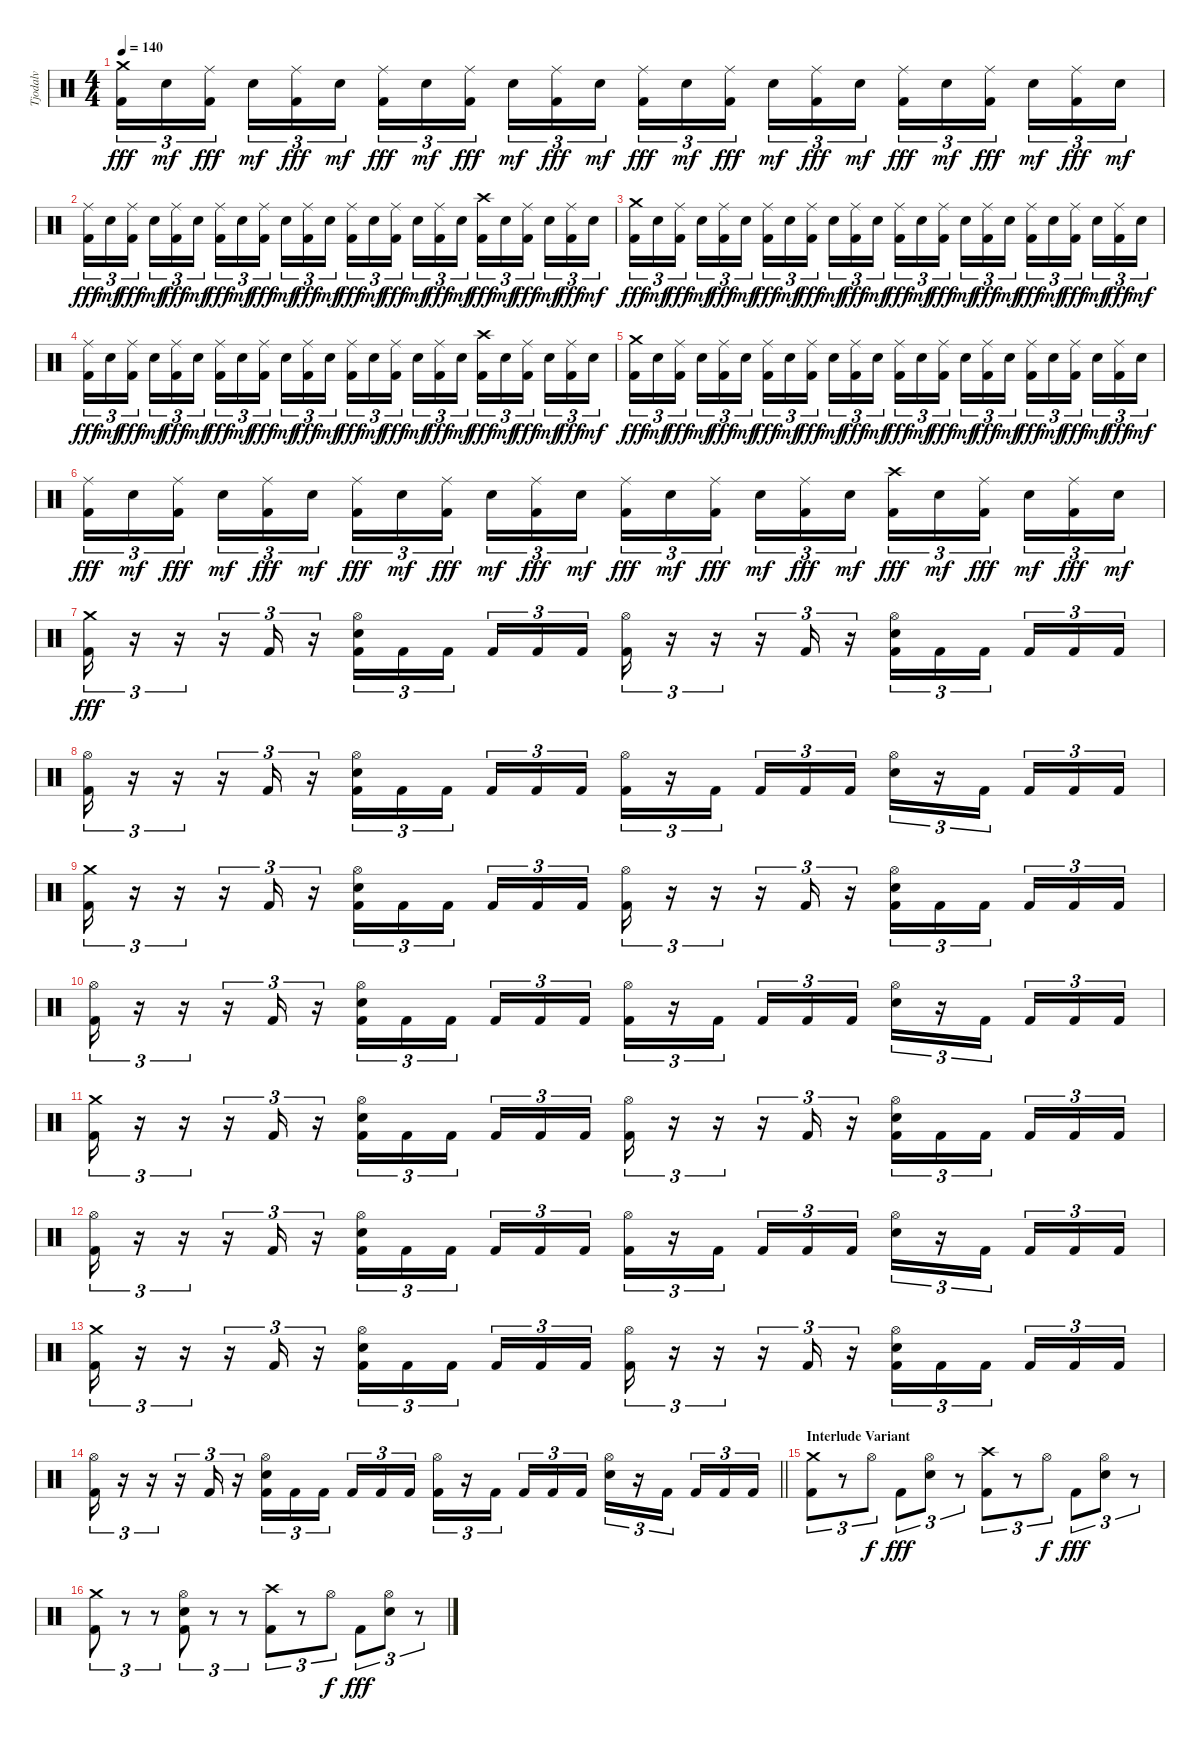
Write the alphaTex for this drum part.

\track ("Tjodalv" "Tjodalv") {instrument percussion}
\staff {score}
\articulation defaults
\ts (4 4)
\tempo 140
\clef neutral
\ks c
("Crash medium (hit)" "Kick (hit) 2").16{tu (3 2) dy fff} "Snare (hit) 2".16{tu (3 2) dy mf} ("Ride (middle)" "Kick (hit) 2").16{tu (3 2) dy fff beam splitsecondary} "Snare (hit) 2".16{tu (3 2) dy mf} ("Ride (middle)" "Kick (hit) 2").16{tu (3 2) dy fff} "Snare (hit) 2".16{tu (3 2) dy mf} ("Ride (middle)" "Kick (hit) 2").16{tu (3 2) dy fff} "Snare (hit) 2".16{tu (3 2) dy mf} ("Ride (middle)" "Kick (hit) 2").16{tu (3 2) dy fff beam splitsecondary} "Snare (hit) 2".16{tu (3 2) dy mf} ("Ride (middle)" "Kick (hit) 2").16{tu (3 2) dy fff} "Snare (hit) 2".16{tu (3 2) dy mf} ("Ride (middle)" "Kick (hit) 2").16{tu (3 2) dy fff} "Snare (hit) 2".16{tu (3 2) dy mf} ("Ride (middle)" "Kick (hit) 2").16{tu (3 2) dy fff beam splitsecondary} "Snare (hit) 2".16{tu (3 2) dy mf} ("Ride (middle)" "Kick (hit) 2").16{tu (3 2) dy fff} "Snare (hit) 2".16{tu (3 2) dy mf} ("Ride (middle)" "Kick (hit) 2").16{tu (3 2) dy fff} "Snare (hit) 2".16{tu (3 2) dy mf} ("Ride (middle)" "Kick (hit) 2").16{tu (3 2) dy fff beam splitsecondary} "Snare (hit) 2".16{tu (3 2) dy mf} ("Ride (middle)" "Kick (hit) 2").16{tu (3 2) dy fff} "Snare (hit) 2".16{tu (3 2) dy mf} |
("Ride (middle)" "Kick (hit) 2").16{tu (3 2) dy fff} "Snare (hit) 2".16{tu (3 2) dy mf} ("Ride (middle)" "Kick (hit) 2").16{tu (3 2) dy fff beam splitsecondary} "Snare (hit) 2".16{tu (3 2) dy mf} ("Ride (middle)" "Kick (hit) 2").16{tu (3 2) dy fff} "Snare (hit) 2".16{tu (3 2) dy mf} ("Ride (middle)" "Kick (hit) 2").16{tu (3 2) dy fff} "Snare (hit) 2".16{tu (3 2) dy mf} ("Ride (middle)" "Kick (hit) 2").16{tu (3 2) dy fff beam splitsecondary} "Snare (hit) 2".16{tu (3 2) dy mf} ("Ride (middle)" "Kick (hit) 2").16{tu (3 2) dy fff} "Snare (hit) 2".16{tu (3 2) dy mf} ("Ride (middle)" "Kick (hit) 2").16{tu (3 2) dy fff} "Snare (hit) 2".16{tu (3 2) dy mf} ("Ride (middle)" "Kick (hit) 2").16{tu (3 2) dy fff beam splitsecondary} "Snare (hit) 2".16{tu (3 2) dy mf} ("Ride (middle)" "Kick (hit) 2").16{tu (3 2) dy fff} "Snare (hit) 2".16{tu (3 2) dy mf} ("Crash high (hit)" "Kick (hit) 2").16{tu (3 2) dy fff} "Snare (hit) 2".16{tu (3 2) dy mf} ("Ride (middle)" "Kick (hit) 2").16{tu (3 2) dy fff beam splitsecondary} "Snare (hit) 2".16{tu (3 2) dy mf} ("Ride (middle)" "Kick (hit) 2").16{tu (3 2) dy fff} "Snare (hit) 2".16{tu (3 2) dy mf} |
("Crash medium (hit)" "Kick (hit) 2").16{tu (3 2) dy fff} "Snare (hit) 2".16{tu (3 2) dy mf} ("Ride (middle)" "Kick (hit) 2").16{tu (3 2) dy fff beam splitsecondary} "Snare (hit) 2".16{tu (3 2) dy mf} ("Ride (middle)" "Kick (hit) 2").16{tu (3 2) dy fff} "Snare (hit) 2".16{tu (3 2) dy mf} ("Ride (middle)" "Kick (hit) 2").16{tu (3 2) dy fff} "Snare (hit) 2".16{tu (3 2) dy mf} ("Ride (middle)" "Kick (hit) 2").16{tu (3 2) dy fff beam splitsecondary} "Snare (hit) 2".16{tu (3 2) dy mf} ("Ride (middle)" "Kick (hit) 2").16{tu (3 2) dy fff} "Snare (hit) 2".16{tu (3 2) dy mf} ("Ride (middle)" "Kick (hit) 2").16{tu (3 2) dy fff} "Snare (hit) 2".16{tu (3 2) dy mf} ("Ride (middle)" "Kick (hit) 2").16{tu (3 2) dy fff beam splitsecondary} "Snare (hit) 2".16{tu (3 2) dy mf} ("Ride (middle)" "Kick (hit) 2").16{tu (3 2) dy fff} "Snare (hit) 2".16{tu (3 2) dy mf} ("Ride (middle)" "Kick (hit) 2").16{tu (3 2) dy fff} "Snare (hit) 2".16{tu (3 2) dy mf} ("Ride (middle)" "Kick (hit) 2").16{tu (3 2) dy fff beam splitsecondary} "Snare (hit) 2".16{tu (3 2) dy mf} ("Ride (middle)" "Kick (hit) 2").16{tu (3 2) dy fff} "Snare (hit) 2".16{tu (3 2) dy mf} |
("Ride (middle)" "Kick (hit) 2").16{tu (3 2) dy fff} "Snare (hit) 2".16{tu (3 2) dy mf} ("Ride (middle)" "Kick (hit) 2").16{tu (3 2) dy fff beam splitsecondary} "Snare (hit) 2".16{tu (3 2) dy mf} ("Ride (middle)" "Kick (hit) 2").16{tu (3 2) dy fff} "Snare (hit) 2".16{tu (3 2) dy mf} ("Ride (middle)" "Kick (hit) 2").16{tu (3 2) dy fff} "Snare (hit) 2".16{tu (3 2) dy mf} ("Ride (middle)" "Kick (hit) 2").16{tu (3 2) dy fff beam splitsecondary} "Snare (hit) 2".16{tu (3 2) dy mf} ("Ride (middle)" "Kick (hit) 2").16{tu (3 2) dy fff} "Snare (hit) 2".16{tu (3 2) dy mf} ("Ride (middle)" "Kick (hit) 2").16{tu (3 2) dy fff} "Snare (hit) 2".16{tu (3 2) dy mf} ("Ride (middle)" "Kick (hit) 2").16{tu (3 2) dy fff beam splitsecondary} "Snare (hit) 2".16{tu (3 2) dy mf} ("Ride (middle)" "Kick (hit) 2").16{tu (3 2) dy fff} "Snare (hit) 2".16{tu (3 2) dy mf} ("Crash high (hit)" "Kick (hit) 2").16{tu (3 2) dy fff} "Snare (hit) 2".16{tu (3 2) dy mf} ("Ride (middle)" "Kick (hit) 2").16{tu (3 2) dy fff beam splitsecondary} "Snare (hit) 2".16{tu (3 2) dy mf} ("Ride (middle)" "Kick (hit) 2").16{tu (3 2) dy fff} "Snare (hit) 2".16{tu (3 2) dy mf} |
("Crash medium (hit)" "Kick (hit) 2").16{tu (3 2) dy fff} "Snare (hit) 2".16{tu (3 2) dy mf} ("Ride (middle)" "Kick (hit) 2").16{tu (3 2) dy fff beam splitsecondary} "Snare (hit) 2".16{tu (3 2) dy mf} ("Ride (middle)" "Kick (hit) 2").16{tu (3 2) dy fff} "Snare (hit) 2".16{tu (3 2) dy mf} ("Ride (middle)" "Kick (hit) 2").16{tu (3 2) dy fff} "Snare (hit) 2".16{tu (3 2) dy mf} ("Ride (middle)" "Kick (hit) 2").16{tu (3 2) dy fff beam splitsecondary} "Snare (hit) 2".16{tu (3 2) dy mf} ("Ride (middle)" "Kick (hit) 2").16{tu (3 2) dy fff} "Snare (hit) 2".16{tu (3 2) dy mf} ("Ride (middle)" "Kick (hit) 2").16{tu (3 2) dy fff} "Snare (hit) 2".16{tu (3 2) dy mf} ("Ride (middle)" "Kick (hit) 2").16{tu (3 2) dy fff beam splitsecondary} "Snare (hit) 2".16{tu (3 2) dy mf} ("Ride (middle)" "Kick (hit) 2").16{tu (3 2) dy fff} "Snare (hit) 2".16{tu (3 2) dy mf} ("Ride (middle)" "Kick (hit) 2").16{tu (3 2) dy fff} "Snare (hit) 2".16{tu (3 2) dy mf} ("Ride (middle)" "Kick (hit) 2").16{tu (3 2) dy fff beam splitsecondary} "Snare (hit) 2".16{tu (3 2) dy mf} ("Ride (middle)" "Kick (hit) 2").16{tu (3 2) dy fff} "Snare (hit) 2".16{tu (3 2) dy mf} |
("Ride (middle)" "Kick (hit) 2").16{tu (3 2) dy fff} "Snare (hit) 2".16{tu (3 2) dy mf} ("Ride (middle)" "Kick (hit) 2").16{tu (3 2) dy fff beam splitsecondary} "Snare (hit) 2".16{tu (3 2) dy mf} ("Ride (middle)" "Kick (hit) 2").16{tu (3 2) dy fff} "Snare (hit) 2".16{tu (3 2) dy mf} ("Ride (middle)" "Kick (hit) 2").16{tu (3 2) dy fff} "Snare (hit) 2".16{tu (3 2) dy mf} ("Ride (middle)" "Kick (hit) 2").16{tu (3 2) dy fff beam splitsecondary} "Snare (hit) 2".16{tu (3 2) dy mf} ("Ride (middle)" "Kick (hit) 2").16{tu (3 2) dy fff} "Snare (hit) 2".16{tu (3 2) dy mf} ("Ride (middle)" "Kick (hit) 2").16{tu (3 2) dy fff} "Snare (hit) 2".16{tu (3 2) dy mf} ("Ride (middle)" "Kick (hit) 2").16{tu (3 2) dy fff beam splitsecondary} "Snare (hit) 2".16{tu (3 2) dy mf} ("Ride (middle)" "Kick (hit) 2").16{tu (3 2) dy fff} "Snare (hit) 2".16{tu (3 2) dy mf} ("Crash high (hit)" "Kick (hit) 2").16{tu (3 2) dy fff} "Snare (hit) 2".16{tu (3 2) dy mf} ("Ride (middle)" "Kick (hit) 2").16{tu (3 2) dy fff beam splitsecondary} "Snare (hit) 2".16{tu (3 2) dy mf} ("Ride (middle)" "Kick (hit) 2").16{tu (3 2) dy fff} "Snare (hit) 2".16{tu (3 2) dy mf} |
("Crash medium (hit)" "Kick (hit) 2").16{tu (3 2) dy fff} r.16{tu (3 2)} r.16{tu (3 2)} r.16{tu (3 2)} "Kick (hit) 2".16{tu (3 2)} r.16{tu (3 2)} ("Hi-Hat (open)" "Snare (hit) 2" "Kick (hit) 2").16{tu (3 2)} "Kick (hit) 2".16{tu (3 2)} "Kick (hit) 2".16{tu (3 2) beam splitsecondary} "Kick (hit) 2".16{tu (3 2)} "Kick (hit) 2".16{tu (3 2)} "Kick (hit) 2".16{tu (3 2)} ("Hi-Hat (open)" "Kick (hit) 2").16{tu (3 2)} r.16{tu (3 2)} r.16{tu (3 2)} r.16{tu (3 2)} "Kick (hit) 2".16{tu (3 2)} r.16{tu (3 2)} ("Hi-Hat (open)" "Snare (hit) 2" "Kick (hit) 2").16{tu (3 2)} "Kick (hit) 2".16{tu (3 2)} "Kick (hit) 2".16{tu (3 2) beam splitsecondary} "Kick (hit) 2".16{tu (3 2)} "Kick (hit) 2".16{tu (3 2)} "Kick (hit) 2".16{tu (3 2)} |
("Hi-Hat (open)" "Kick (hit) 2").16{tu (3 2)} r.16{tu (3 2)} r.16{tu (3 2)} r.16{tu (3 2)} "Kick (hit) 2".16{tu (3 2)} r.16{tu (3 2)} ("Hi-Hat (open)" "Snare (hit) 2" "Kick (hit) 2").16{tu (3 2)} "Kick (hit) 2".16{tu (3 2)} "Kick (hit) 2".16{tu (3 2) beam splitsecondary} "Kick (hit) 2".16{tu (3 2)} "Kick (hit) 2".16{tu (3 2)} "Kick (hit) 2".16{tu (3 2)} ("Hi-Hat (open)" "Kick (hit) 2").16{tu (3 2)} r.16{tu (3 2)} "Kick (hit) 2".16{tu (3 2) beam splitsecondary} "Kick (hit) 2".16{tu (3 2)} "Kick (hit) 2".16{tu (3 2)} "Kick (hit) 2".16{tu (3 2)} ("Hi-Hat (open)" "Snare (hit) 2").16{tu (3 2)} r.16{tu (3 2)} "Kick (hit) 2".16{tu (3 2) beam splitsecondary} "Kick (hit) 2".16{tu (3 2)} "Kick (hit) 2".16{tu (3 2)} "Kick (hit) 2".16{tu (3 2)} |
("Crash medium (hit)" "Kick (hit) 2").16{tu (3 2)} r.16{tu (3 2)} r.16{tu (3 2)} r.16{tu (3 2)} "Kick (hit) 2".16{tu (3 2)} r.16{tu (3 2)} ("Hi-Hat (open)" "Snare (hit) 2" "Kick (hit) 2").16{tu (3 2)} "Kick (hit) 2".16{tu (3 2)} "Kick (hit) 2".16{tu (3 2) beam splitsecondary} "Kick (hit) 2".16{tu (3 2)} "Kick (hit) 2".16{tu (3 2)} "Kick (hit) 2".16{tu (3 2)} ("Hi-Hat (open)" "Kick (hit) 2").16{tu (3 2)} r.16{tu (3 2)} r.16{tu (3 2)} r.16{tu (3 2)} "Kick (hit) 2".16{tu (3 2)} r.16{tu (3 2)} ("Hi-Hat (open)" "Snare (hit) 2" "Kick (hit) 2").16{tu (3 2)} "Kick (hit) 2".16{tu (3 2)} "Kick (hit) 2".16{tu (3 2) beam splitsecondary} "Kick (hit) 2".16{tu (3 2)} "Kick (hit) 2".16{tu (3 2)} "Kick (hit) 2".16{tu (3 2)} |
("Hi-Hat (open)" "Kick (hit) 2").16{tu (3 2)} r.16{tu (3 2)} r.16{tu (3 2)} r.16{tu (3 2)} "Kick (hit) 2".16{tu (3 2)} r.16{tu (3 2)} ("Hi-Hat (open)" "Snare (hit) 2" "Kick (hit) 2").16{tu (3 2)} "Kick (hit) 2".16{tu (3 2)} "Kick (hit) 2".16{tu (3 2) beam splitsecondary} "Kick (hit) 2".16{tu (3 2)} "Kick (hit) 2".16{tu (3 2)} "Kick (hit) 2".16{tu (3 2)} ("Hi-Hat (open)" "Kick (hit) 2").16{tu (3 2)} r.16{tu (3 2)} "Kick (hit) 2".16{tu (3 2) beam splitsecondary} "Kick (hit) 2".16{tu (3 2)} "Kick (hit) 2".16{tu (3 2)} "Kick (hit) 2".16{tu (3 2)} ("Hi-Hat (open)" "Snare (hit) 2").16{tu (3 2)} r.16{tu (3 2)} "Kick (hit) 2".16{tu (3 2) beam splitsecondary} "Kick (hit) 2".16{tu (3 2)} "Kick (hit) 2".16{tu (3 2)} "Kick (hit) 2".16{tu (3 2)} |
("Crash medium (hit)" "Kick (hit) 2").16{tu (3 2)} r.16{tu (3 2)} r.16{tu (3 2)} r.16{tu (3 2)} "Kick (hit) 2".16{tu (3 2)} r.16{tu (3 2)} ("Hi-Hat (open)" "Snare (hit) 2" "Kick (hit) 2").16{tu (3 2)} "Kick (hit) 2".16{tu (3 2)} "Kick (hit) 2".16{tu (3 2) beam splitsecondary} "Kick (hit) 2".16{tu (3 2)} "Kick (hit) 2".16{tu (3 2)} "Kick (hit) 2".16{tu (3 2)} ("Hi-Hat (open)" "Kick (hit) 2").16{tu (3 2)} r.16{tu (3 2)} r.16{tu (3 2)} r.16{tu (3 2)} "Kick (hit) 2".16{tu (3 2)} r.16{tu (3 2)} ("Hi-Hat (open)" "Snare (hit) 2" "Kick (hit) 2").16{tu (3 2)} "Kick (hit) 2".16{tu (3 2)} "Kick (hit) 2".16{tu (3 2) beam splitsecondary} "Kick (hit) 2".16{tu (3 2)} "Kick (hit) 2".16{tu (3 2)} "Kick (hit) 2".16{tu (3 2)} |
("Hi-Hat (open)" "Kick (hit) 2").16{tu (3 2)} r.16{tu (3 2)} r.16{tu (3 2)} r.16{tu (3 2)} "Kick (hit) 2".16{tu (3 2)} r.16{tu (3 2)} ("Hi-Hat (open)" "Snare (hit) 2" "Kick (hit) 2").16{tu (3 2)} "Kick (hit) 2".16{tu (3 2)} "Kick (hit) 2".16{tu (3 2) beam splitsecondary} "Kick (hit) 2".16{tu (3 2)} "Kick (hit) 2".16{tu (3 2)} "Kick (hit) 2".16{tu (3 2)} ("Hi-Hat (open)" "Kick (hit) 2").16{tu (3 2)} r.16{tu (3 2)} "Kick (hit) 2".16{tu (3 2) beam splitsecondary} "Kick (hit) 2".16{tu (3 2)} "Kick (hit) 2".16{tu (3 2)} "Kick (hit) 2".16{tu (3 2)} ("Hi-Hat (open)" "Snare (hit) 2").16{tu (3 2)} r.16{tu (3 2)} "Kick (hit) 2".16{tu (3 2) beam splitsecondary} "Kick (hit) 2".16{tu (3 2)} "Kick (hit) 2".16{tu (3 2)} "Kick (hit) 2".16{tu (3 2)} |
("Crash medium (hit)" "Kick (hit) 2").16{tu (3 2)} r.16{tu (3 2)} r.16{tu (3 2)} r.16{tu (3 2)} "Kick (hit) 2".16{tu (3 2)} r.16{tu (3 2)} ("Hi-Hat (open)" "Snare (hit) 2" "Kick (hit) 2").16{tu (3 2)} "Kick (hit) 2".16{tu (3 2)} "Kick (hit) 2".16{tu (3 2) beam splitsecondary} "Kick (hit) 2".16{tu (3 2)} "Kick (hit) 2".16{tu (3 2)} "Kick (hit) 2".16{tu (3 2)} ("Hi-Hat (open)" "Kick (hit) 2").16{tu (3 2)} r.16{tu (3 2)} r.16{tu (3 2)} r.16{tu (3 2)} "Kick (hit) 2".16{tu (3 2)} r.16{tu (3 2)} ("Hi-Hat (open)" "Snare (hit) 2" "Kick (hit) 2").16{tu (3 2)} "Kick (hit) 2".16{tu (3 2)} "Kick (hit) 2".16{tu (3 2) beam splitsecondary} "Kick (hit) 2".16{tu (3 2)} "Kick (hit) 2".16{tu (3 2)} "Kick (hit) 2".16{tu (3 2)} |
\barLineRight lightlight
("Hi-Hat (open)" "Kick (hit) 2").16{tu (3 2)} r.16{tu (3 2)} r.16{tu (3 2)} r.16{tu (3 2)} "Kick (hit) 2".16{tu (3 2)} r.16{tu (3 2)} ("Hi-Hat (open)" "Snare (hit) 2" "Kick (hit) 2").16{tu (3 2)} "Kick (hit) 2".16{tu (3 2)} "Kick (hit) 2".16{tu (3 2) beam splitsecondary} "Kick (hit) 2".16{tu (3 2)} "Kick (hit) 2".16{tu (3 2)} "Kick (hit) 2".16{tu (3 2)} ("Hi-Hat (open)" "Kick (hit) 2").16{tu (3 2)} r.16{tu (3 2)} "Kick (hit) 2".16{tu (3 2) beam splitsecondary} "Kick (hit) 2".16{tu (3 2)} "Kick (hit) 2".16{tu (3 2)} "Kick (hit) 2".16{tu (3 2)} ("Hi-Hat (open)" "Snare (hit) 2").16{tu (3 2)} r.16{tu (3 2)} "Kick (hit) 2".16{tu (3 2) beam splitsecondary} "Kick (hit) 2".16{tu (3 2)} "Kick (hit) 2".16{tu (3 2)} "Kick (hit) 2".16{tu (3 2)} |
\section ("" "Interlude Variant")
("Crash medium (hit)" "Kick (hit) 2").8{tu (3 2)} r.8{tu (3 2)} "Hi-Hat (open)".8{tu (3 2) dy f} "Kick (hit) 2".8{tu (3 2) dy fff} ("Hi-Hat (open)" "Snare (hit) 2").8{tu (3 2)} r.8{tu (3 2)} ("Crash high (hit)" "Kick (hit) 2").8{tu (3 2)} r.8{tu (3 2)} "Hi-Hat (open)".8{tu (3 2) dy f} "Kick (hit) 2".8{tu (3 2) dy fff} ("Hi-Hat (open)" "Snare (hit) 2").8{tu (3 2)} r.8{tu (3 2)} |
("Crash medium (hit)" "Kick (hit) 2").8{tu (3 2)} r.8{tu (3 2)} r.8{tu (3 2)} ("Hi-Hat (open)" "Snare (hit) 2" "Kick (hit) 2").8{tu (3 2)} r.8{tu (3 2)} r.8{tu (3 2)} ("Crash high (hit)" "Kick (hit) 2").8{tu (3 2)} r.8{tu (3 2)} "Hi-Hat (open)".8{tu (3 2) dy f} "Kick (hit) 2".8{tu (3 2) dy fff} ("Hi-Hat (open)" "Snare (hit) 2").8{tu (3 2)} r.8{tu (3 2)}
